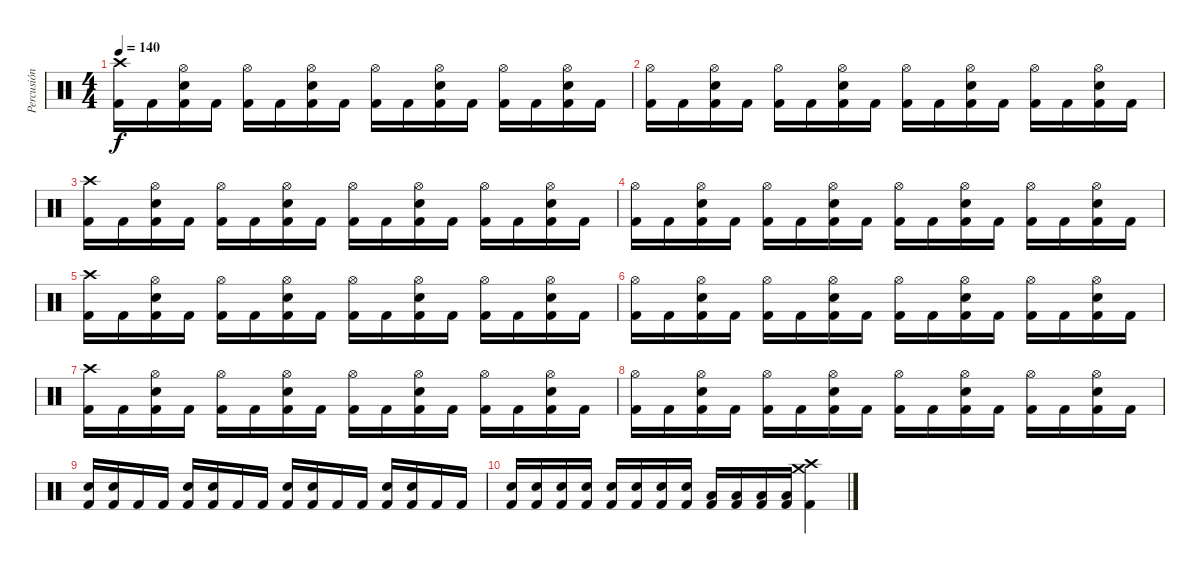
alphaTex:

\track ("Percusión" "Percusión") {instrument percussion}
\staff {score}
\articulation defaults
\ts (4 4)
\tempo 140
\clef neutral
\ks c
("Crash high (hit)" "Kick (hit) 2").16{dy f} "Kick (hit) 2".16 ("Hi-Hat (open)" "Electric Snare (hit)" "Kick (hit) 2").16 "Kick (hit) 2".16 ("Hi-Hat (open)" "Kick (hit) 2").16 "Kick (hit) 2".16 ("Hi-Hat (open)" "Electric Snare (hit)" "Kick (hit) 2").16 "Kick (hit) 2".16 ("Hi-Hat (open)" "Kick (hit) 2").16 "Kick (hit) 2".16 ("Hi-Hat (open)" "Electric Snare (hit)" "Kick (hit) 2").16 "Kick (hit) 2".16 ("Hi-Hat (open)" "Kick (hit) 2").16 "Kick (hit) 2".16 ("Hi-Hat (open)" "Electric Snare (hit)" "Kick (hit) 2").16 "Kick (hit) 2".16 |
("Hi-Hat (open)" "Kick (hit) 2").16 "Kick (hit) 2".16 ("Hi-Hat (open)" "Electric Snare (hit)" "Kick (hit) 2").16 "Kick (hit) 2".16 ("Hi-Hat (open)" "Kick (hit) 2").16 "Kick (hit) 2".16 ("Hi-Hat (open)" "Electric Snare (hit)" "Kick (hit) 2").16 "Kick (hit) 2".16 ("Hi-Hat (open)" "Kick (hit) 2").16 "Kick (hit) 2".16 ("Hi-Hat (open)" "Electric Snare (hit)" "Kick (hit) 2").16 "Kick (hit) 2".16 ("Hi-Hat (open)" "Kick (hit) 2").16 "Kick (hit) 2".16 ("Hi-Hat (open)" "Electric Snare (hit)" "Kick (hit) 2").16 "Kick (hit) 2".16 |
("Crash high (hit)" "Kick (hit) 2").16 "Kick (hit) 2".16 ("Hi-Hat (open)" "Electric Snare (hit)" "Kick (hit) 2").16 "Kick (hit) 2".16 ("Hi-Hat (open)" "Kick (hit) 2").16 "Kick (hit) 2".16 ("Hi-Hat (open)" "Electric Snare (hit)" "Kick (hit) 2").16 "Kick (hit) 2".16 ("Hi-Hat (open)" "Kick (hit) 2").16 "Kick (hit) 2".16 ("Hi-Hat (open)" "Electric Snare (hit)" "Kick (hit) 2").16 "Kick (hit) 2".16 ("Hi-Hat (open)" "Kick (hit) 2").16 "Kick (hit) 2".16 ("Hi-Hat (open)" "Electric Snare (hit)" "Kick (hit) 2").16 "Kick (hit) 2".16 |
("Hi-Hat (open)" "Kick (hit) 2").16 "Kick (hit) 2".16 ("Hi-Hat (open)" "Electric Snare (hit)" "Kick (hit) 2").16 "Kick (hit) 2".16 ("Hi-Hat (open)" "Kick (hit) 2").16 "Kick (hit) 2".16 ("Hi-Hat (open)" "Electric Snare (hit)" "Kick (hit) 2").16 "Kick (hit) 2".16 ("Hi-Hat (open)" "Kick (hit) 2").16 "Kick (hit) 2".16 ("Hi-Hat (open)" "Electric Snare (hit)" "Kick (hit) 2").16 "Kick (hit) 2".16 ("Hi-Hat (open)" "Kick (hit) 2").16 "Kick (hit) 2".16 ("Hi-Hat (open)" "Electric Snare (hit)" "Kick (hit) 2").16 "Kick (hit) 2".16 |
("Crash high (hit)" "Kick (hit) 2").16 "Kick (hit) 2".16 ("Hi-Hat (open)" "Electric Snare (hit)" "Kick (hit) 2").16 "Kick (hit) 2".16 ("Hi-Hat (open)" "Kick (hit) 2").16 "Kick (hit) 2".16 ("Hi-Hat (open)" "Electric Snare (hit)" "Kick (hit) 2").16 "Kick (hit) 2".16 ("Hi-Hat (open)" "Kick (hit) 2").16 "Kick (hit) 2".16 ("Hi-Hat (open)" "Electric Snare (hit)" "Kick (hit) 2").16 "Kick (hit) 2".16 ("Hi-Hat (open)" "Kick (hit) 2").16 "Kick (hit) 2".16 ("Hi-Hat (open)" "Electric Snare (hit)" "Kick (hit) 2").16 "Kick (hit) 2".16 |
("Hi-Hat (open)" "Kick (hit) 2").16 "Kick (hit) 2".16 ("Hi-Hat (open)" "Electric Snare (hit)" "Kick (hit) 2").16 "Kick (hit) 2".16 ("Hi-Hat (open)" "Kick (hit) 2").16 "Kick (hit) 2".16 ("Hi-Hat (open)" "Electric Snare (hit)" "Kick (hit) 2").16 "Kick (hit) 2".16 ("Hi-Hat (open)" "Kick (hit) 2").16 "Kick (hit) 2".16 ("Hi-Hat (open)" "Electric Snare (hit)" "Kick (hit) 2").16 "Kick (hit) 2".16 ("Hi-Hat (open)" "Kick (hit) 2").16 "Kick (hit) 2".16 ("Hi-Hat (open)" "Electric Snare (hit)" "Kick (hit) 2").16 "Kick (hit) 2".16 |
("Crash high (hit)" "Kick (hit) 2").16 "Kick (hit) 2".16 ("Hi-Hat (open)" "Electric Snare (hit)" "Kick (hit) 2").16 "Kick (hit) 2".16 ("Hi-Hat (open)" "Kick (hit) 2").16 "Kick (hit) 2".16 ("Hi-Hat (open)" "Electric Snare (hit)" "Kick (hit) 2").16 "Kick (hit) 2".16 ("Hi-Hat (open)" "Kick (hit) 2").16 "Kick (hit) 2".16 ("Hi-Hat (open)" "Electric Snare (hit)" "Kick (hit) 2").16 "Kick (hit) 2".16 ("Hi-Hat (open)" "Kick (hit) 2").16 "Kick (hit) 2".16 ("Hi-Hat (open)" "Electric Snare (hit)" "Kick (hit) 2").16 "Kick (hit) 2".16 |
("Hi-Hat (open)" "Kick (hit) 2").16 "Kick (hit) 2".16 ("Hi-Hat (open)" "Electric Snare (hit)" "Kick (hit) 2").16 "Kick (hit) 2".16 ("Hi-Hat (open)" "Kick (hit) 2").16 "Kick (hit) 2".16 ("Hi-Hat (open)" "Electric Snare (hit)" "Kick (hit) 2").16 "Kick (hit) 2".16 ("Hi-Hat (open)" "Kick (hit) 2").16 "Kick (hit) 2".16 ("Hi-Hat (open)" "Electric Snare (hit)" "Kick (hit) 2").16 "Kick (hit) 2".16 ("Hi-Hat (open)" "Kick (hit) 2").16 "Kick (hit) 2".16 ("Hi-Hat (open)" "Electric Snare (hit)" "Kick (hit) 2").16 "Kick (hit) 2".16 |
("Electric Snare (hit)" "Kick (hit) 2").16 ("Electric Snare (hit)" "Kick (hit) 2").16 "Kick (hit) 2".16 "Kick (hit) 2".16 ("Electric Snare (hit)" "Kick (hit) 2").16 ("Electric Snare (hit)" "Kick (hit) 2").16 "Kick (hit) 2".16 "Kick (hit) 2".16 ("Electric Snare (hit)" "Kick (hit) 2").16 ("Electric Snare (hit)" "Kick (hit) 2").16 "Kick (hit) 2".16 "Kick (hit) 2".16 ("Electric Snare (hit)" "Kick (hit) 2").16 ("Electric Snare (hit)" "Kick (hit) 2").16 "Kick (hit) 2".16 "Kick (hit) 2".16 |
("Electric Snare (hit)" "Kick (hit) 2").16 ("Electric Snare (hit)" "Kick (hit) 2").16 ("Electric Snare (hit)" "Kick (hit) 2").16 ("Electric Snare (hit)" "Kick (hit) 2").16 ("Electric Snare (hit)" "Kick (hit) 2").16 ("Electric Snare (hit)" "Kick (hit) 2").16 ("Electric Snare (hit)" "Kick (hit) 2").16 ("Electric Snare (hit)" "Kick (hit) 2").16 ("Low Tom (hit)" "Kick (hit) 2").16 ("Low Tom (hit)" "Kick (hit) 2").16 ("Low Tom (hit)" "Kick (hit) 2").16 ("Low Tom (hit)" "Kick (hit) 2").16 ("Crash medium (hit)" "Crash high (hit)" "Kick (hit) 2").4
